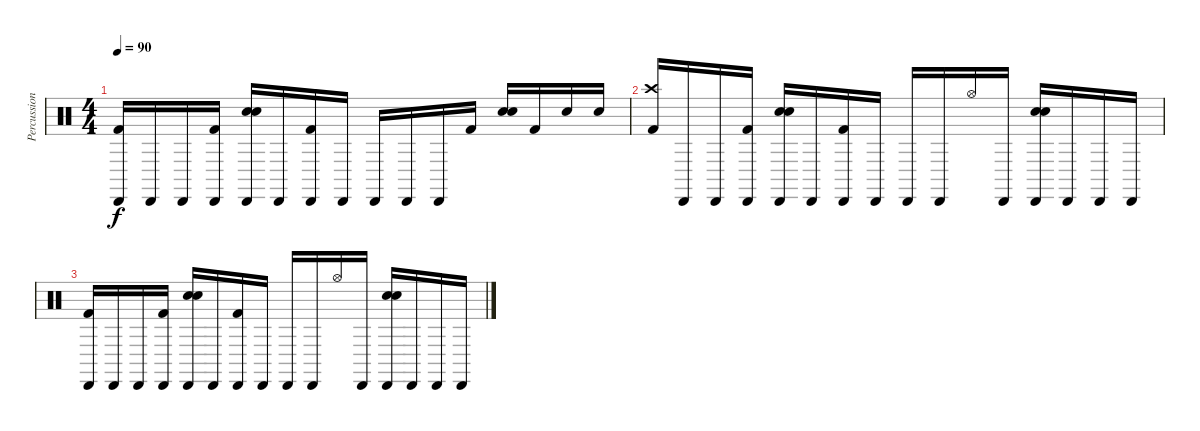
\track ("Percussions" "Percussion") {instrument percussion}
\staff {score}
\articulation defaults
\ts (4 4)
\tempo 90
\clef neutral
\ks c
("Cabasa (hit)" "Kick (hit) 2").16{dy f volume 12} "Cabasa (hit)".16 "Cabasa (hit)".16 ("Cabasa (hit)" "Kick (hit) 2").16 ("Cabasa (hit)" "Hand Clap (hit)" "Electric Snare (hit)").16 "Cabasa (hit)".16 ("Cabasa (hit)" "Kick (hit) 2").16 "Cabasa (hit)".16 "Cabasa (hit)".16 "Cabasa (hit)".16 "Cabasa (hit)".16 "Kick (hit) 2".16 ("Hand Clap (hit)" "Electric Snare (hit)").16 "Kick (hit) 2".16 "Electric Snare (hit)".16 "Electric Snare (hit)".16 |
("Crash high (hit)" "Kick (hit) 2").16{volume 8} "Cabasa (hit)".16 "Cabasa (hit)".16 ("Cabasa (hit)" "Kick (hit) 2").16 ("Cabasa (hit)" "Hand Clap (hit)" "Electric Snare (hit)").16 "Cabasa (hit)".16 ("Cabasa (hit)" "Kick (hit) 2").16 "Cabasa (hit)".16 "Cabasa (hit)".16 "Cabasa (hit)".16 "Hi-Hat (open)".16 "Cabasa (hit)".16 ("Cabasa (hit)" "Hand Clap (hit)" "Electric Snare (hit)").16 "Cabasa (hit)".16 "Cabasa (hit)".16 "Cabasa (hit)".16 |
("Cabasa (hit)" "Kick (hit) 2").16{volume 0} "Cabasa (hit)".16 "Cabasa (hit)".16 ("Cabasa (hit)" "Kick (hit) 2").16 ("Cabasa (hit)" "Hand Clap (hit)" "Electric Snare (hit)").16 "Cabasa (hit)".16 ("Cabasa (hit)" "Kick (hit) 2").16 "Cabasa (hit)".16 "Cabasa (hit)".16 "Cabasa (hit)".16 "Hi-Hat (open)".16 "Cabasa (hit)".16 ("Cabasa (hit)" "Hand Clap (hit)" "Electric Snare (hit)").16 "Cabasa (hit)".16 "Cabasa (hit)".16 "Cabasa (hit)".16
